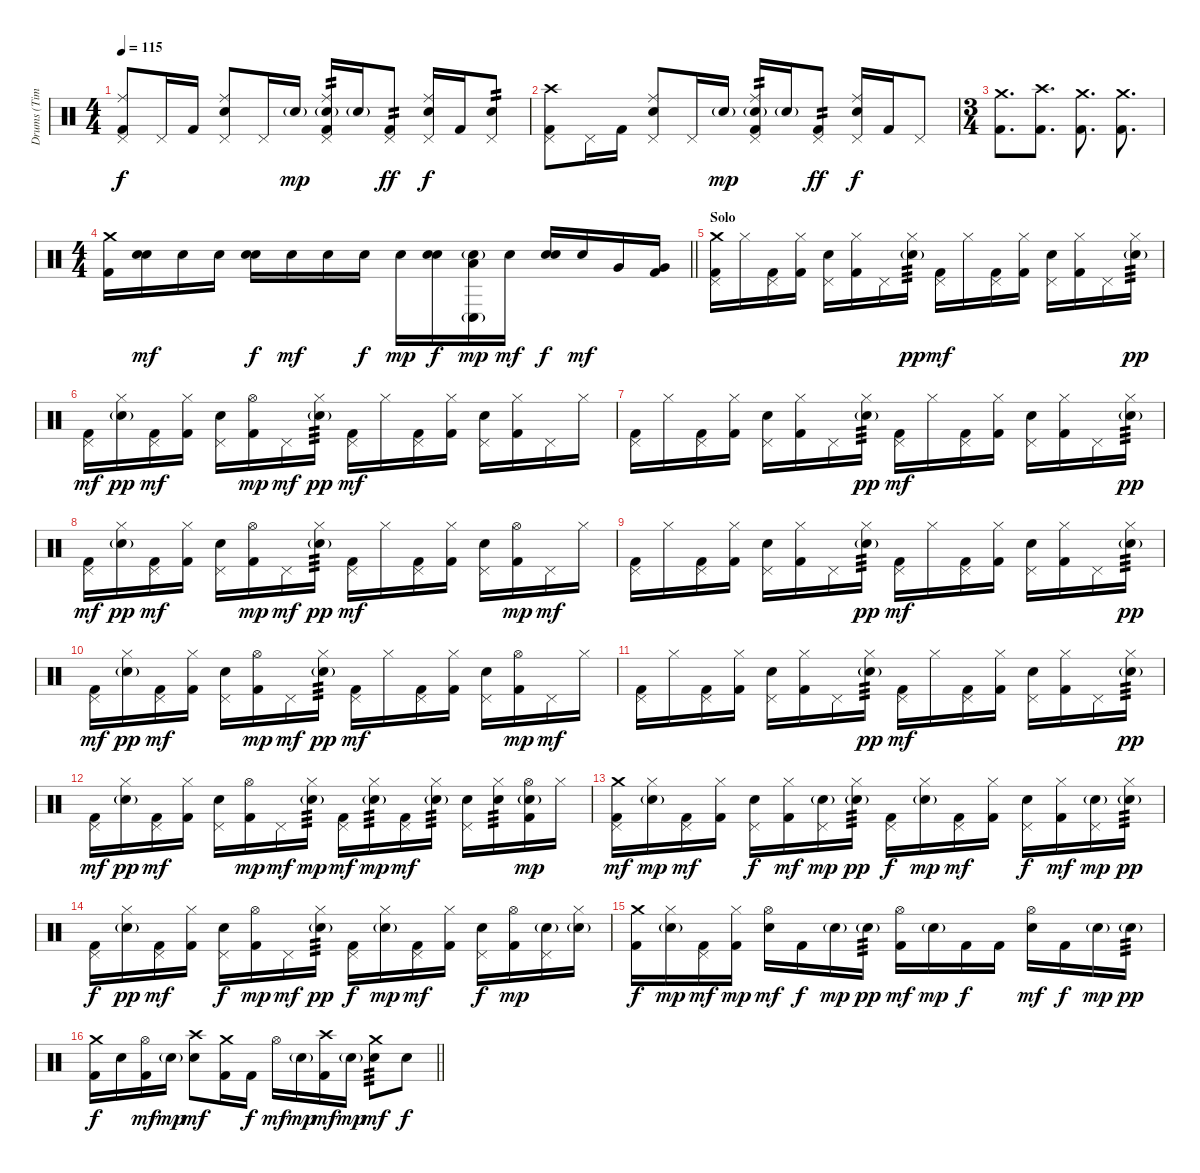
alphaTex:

\track ("Drums (Tim Alexander)" "Drums (Tim") {instrument percussion}
\staff {score}
\articulation defaults
\ts (4 4)
\tempo 115
\clef neutral
\ks c
("Pedal Hi-Hat (hit)" "Ride (middle)" "Kick (hit) 2").8{dy f} "Pedal Hi-Hat (hit)".16 "Kick (hit) 2".16 ("Pedal Hi-Hat (hit)" "Ride (middle)" "Electric Snare (hit)").8 "Pedal Hi-Hat (hit)".16 "Electric Snare (hit)"{g}.16{dy mp} ("Pedal Hi-Hat (hit)" "Ride (middle)" "Electric Snare (hit)"{g} "Kick (hit) 2").16{tp 2} "Electric Snare (hit)"{g}.16 ("Pedal Hi-Hat (hit)" "Kick (hit) 2").8{tp 2 dy ff} ("Pedal Hi-Hat (hit)" "Ride (middle)" "Electric Snare (hit)").16{dy f} "Kick (hit) 2".16 ("Pedal Hi-Hat (hit)" "Electric Snare (hit)").8{tp 2} |
("Pedal Hi-Hat (hit)" "Crash high (hit)" "Kick (hit) 2").8 "Pedal Hi-Hat (hit)".16 "Kick (hit) 2".16 ("Pedal Hi-Hat (hit)" "Ride (middle)" "Electric Snare (hit)").8 "Pedal Hi-Hat (hit)".16 "Electric Snare (hit)"{g}.16{dy mp} ("Pedal Hi-Hat (hit)" "Ride (middle)" "Electric Snare (hit)"{g} "Kick (hit) 2").16{tp 2} "Electric Snare (hit)"{g}.16 ("Pedal Hi-Hat (hit)" "Kick (hit) 2").8{tp 2 dy ff} ("Pedal Hi-Hat (hit)" "Ride (middle)" "Electric Snare (hit)").16{dy f} "Kick (hit) 2".16 "Pedal Hi-Hat (hit)".8 |
\ts (3 4)
("Crash medium (hit)" "Kick (hit) 2").8{d} ("Crash high (hit)" "Kick (hit) 2").8{d} ("Crash medium (hit)" "Kick (hit) 2").8{d} ("Crash medium (hit)" "Kick (hit) 2").8{d} |
\ts (4 4)
\barLineRight lightlight
("Crash medium (hit)" "Kick (hit) 2").16 ("Electric Snare (hit)" "Electric Snare (hit)").16{bd 30 dy mf} "Electric Snare (hit)".16 "Electric Snare (hit)".16 ("Electric Snare (hit)" "Electric Snare (hit)").16{bd 480 dy f} "Electric Snare (hit)".16{dy mf} "Electric Snare (hit)".16 "Electric Snare (hit)".16{dy f} "Electric Snare (hit)".16{dy mp} ("Electric Snare (hit)" "Electric Snare (hit)").16{bd 60 dy f} ("Conga low (hit)"{g} "Low Tom (hit)" "Electric Snare (hit)"{g}).16{dy mp} "Electric Snare (hit)".16{dy mf} ("Electric Snare (hit)" "Electric Snare (hit)").16{bd 30 dy f} "Electric Snare (hit)".16{dy mf} "Very Low Tom (hit)".16 ("Very Low Tom (hit)" "Kick (hit) 2").16 |
\section ("" "Solo")
("Pedal Hi-Hat (hit)" "Crash medium (hit)" "Kick (hit) 2").16{volume 11} "Hi-Hat (closed)".16 ("Pedal Hi-Hat (hit)" "Kick (hit) 2").16 ("Hi-Hat (closed)" "Kick (hit) 2").16 ("Pedal Hi-Hat (hit)" "Electric Snare (hit)").16 ("Hi-Hat (closed)" "Kick (hit) 2").16 "Pedal Hi-Hat (hit)".16 ("Hi-Hat (closed)" "Electric Snare (hit)"{g}).16{tp 3 dy pp} ("Pedal Hi-Hat (hit)" "Kick (hit) 2").16{dy mf} "Hi-Hat (closed)".16 ("Pedal Hi-Hat (hit)" "Kick (hit) 2").16 ("Hi-Hat (closed)" "Kick (hit) 2").16 ("Pedal Hi-Hat (hit)" "Electric Snare (hit)").16 ("Hi-Hat (closed)" "Kick (hit) 2").16 "Pedal Hi-Hat (hit)".16 ("Hi-Hat (closed)" "Electric Snare (hit)"{g}).16{tp 3 dy pp} |
("Pedal Hi-Hat (hit)" "Kick (hit) 2").16{dy mf} ("Hi-Hat (closed)" "Electric Snare (hit)"{g}).16{dy pp} ("Pedal Hi-Hat (hit)" "Kick (hit) 2").16{dy mf} ("Hi-Hat (closed)" "Kick (hit) 2").16 ("Pedal Hi-Hat (hit)" "Electric Snare (hit)").16 ("Hi-Hat (open)" "Kick (hit) 2").16{dy mp} "Pedal Hi-Hat (hit)".16{dy mf} ("Hi-Hat (closed)" "Electric Snare (hit)"{g}).16{tp 3 dy pp} ("Pedal Hi-Hat (hit)" "Kick (hit) 2").16{dy mf} "Hi-Hat (closed)".16 ("Pedal Hi-Hat (hit)" "Kick (hit) 2").16 ("Hi-Hat (closed)" "Kick (hit) 2").16 ("Pedal Hi-Hat (hit)" "Electric Snare (hit)").16 ("Hi-Hat (closed)" "Kick (hit) 2").16 "Pedal Hi-Hat (hit)".16 "Hi-Hat (closed)".16 |
("Pedal Hi-Hat (hit)" "Kick (hit) 2").16 "Hi-Hat (closed)".16 ("Pedal Hi-Hat (hit)" "Kick (hit) 2").16 ("Hi-Hat (closed)" "Kick (hit) 2").16 ("Pedal Hi-Hat (hit)" "Electric Snare (hit)").16 ("Hi-Hat (closed)" "Kick (hit) 2").16 "Pedal Hi-Hat (hit)".16 ("Hi-Hat (closed)" "Electric Snare (hit)"{g}).16{tp 3 dy pp} ("Pedal Hi-Hat (hit)" "Kick (hit) 2").16{dy mf} "Hi-Hat (closed)".16 ("Pedal Hi-Hat (hit)" "Kick (hit) 2").16 ("Hi-Hat (closed)" "Kick (hit) 2").16 ("Pedal Hi-Hat (hit)" "Electric Snare (hit)").16 ("Hi-Hat (closed)" "Kick (hit) 2").16 "Pedal Hi-Hat (hit)".16 ("Hi-Hat (closed)" "Electric Snare (hit)"{g}).16{tp 3 dy pp} |
("Pedal Hi-Hat (hit)" "Kick (hit) 2").16{dy mf} ("Hi-Hat (closed)" "Electric Snare (hit)"{g}).16{dy pp} ("Pedal Hi-Hat (hit)" "Kick (hit) 2").16{dy mf} ("Hi-Hat (closed)" "Kick (hit) 2").16 ("Pedal Hi-Hat (hit)" "Electric Snare (hit)").16 ("Hi-Hat (open)" "Kick (hit) 2").16{dy mp} "Pedal Hi-Hat (hit)".16{dy mf} ("Hi-Hat (closed)" "Electric Snare (hit)"{g}).16{tp 3 dy pp} ("Pedal Hi-Hat (hit)" "Kick (hit) 2").16{dy mf} "Hi-Hat (closed)".16 ("Pedal Hi-Hat (hit)" "Kick (hit) 2").16 ("Hi-Hat (closed)" "Kick (hit) 2").16 ("Pedal Hi-Hat (hit)" "Electric Snare (hit)").16 ("Hi-Hat (open)" "Kick (hit) 2").16{dy mp} "Pedal Hi-Hat (hit)".16{dy mf} "Hi-Hat (closed)".16 |
("Pedal Hi-Hat (hit)" "Kick (hit) 2").16 "Hi-Hat (closed)".16 ("Pedal Hi-Hat (hit)" "Kick (hit) 2").16 ("Hi-Hat (closed)" "Kick (hit) 2").16 ("Pedal Hi-Hat (hit)" "Electric Snare (hit)").16 ("Hi-Hat (closed)" "Kick (hit) 2").16 "Pedal Hi-Hat (hit)".16 ("Hi-Hat (closed)" "Electric Snare (hit)"{g}).16{tp 3 dy pp} ("Pedal Hi-Hat (hit)" "Kick (hit) 2").16{dy mf} "Hi-Hat (closed)".16 ("Pedal Hi-Hat (hit)" "Kick (hit) 2").16 ("Hi-Hat (closed)" "Kick (hit) 2").16 ("Pedal Hi-Hat (hit)" "Electric Snare (hit)").16 ("Hi-Hat (closed)" "Kick (hit) 2").16 "Pedal Hi-Hat (hit)".16 ("Hi-Hat (closed)" "Electric Snare (hit)"{g}).16{tp 3 dy pp} |
("Pedal Hi-Hat (hit)" "Kick (hit) 2").16{dy mf} ("Hi-Hat (closed)" "Electric Snare (hit)"{g}).16{dy pp} ("Pedal Hi-Hat (hit)" "Kick (hit) 2").16{dy mf} ("Hi-Hat (closed)" "Kick (hit) 2").16 ("Pedal Hi-Hat (hit)" "Electric Snare (hit)").16 ("Hi-Hat (open)" "Kick (hit) 2").16{dy mp} "Pedal Hi-Hat (hit)".16{dy mf} ("Hi-Hat (closed)" "Electric Snare (hit)"{g}).16{tp 3 dy pp} ("Pedal Hi-Hat (hit)" "Kick (hit) 2").16{dy mf} "Hi-Hat (closed)".16 ("Pedal Hi-Hat (hit)" "Kick (hit) 2").16 ("Hi-Hat (closed)" "Kick (hit) 2").16 ("Pedal Hi-Hat (hit)" "Electric Snare (hit)").16 ("Hi-Hat (open)" "Kick (hit) 2").16{dy mp} "Pedal Hi-Hat (hit)".16{dy mf} "Hi-Hat (closed)".16 |
("Pedal Hi-Hat (hit)" "Kick (hit) 2").16 "Hi-Hat (closed)".16 ("Pedal Hi-Hat (hit)" "Kick (hit) 2").16 ("Hi-Hat (closed)" "Kick (hit) 2").16 ("Pedal Hi-Hat (hit)" "Electric Snare (hit)").16 ("Hi-Hat (closed)" "Kick (hit) 2").16 "Pedal Hi-Hat (hit)".16 ("Hi-Hat (closed)" "Electric Snare (hit)"{g}).16{tp 3 dy pp} ("Pedal Hi-Hat (hit)" "Kick (hit) 2").16{dy mf} "Hi-Hat (closed)".16 ("Pedal Hi-Hat (hit)" "Kick (hit) 2").16 ("Hi-Hat (closed)" "Kick (hit) 2").16 ("Pedal Hi-Hat (hit)" "Electric Snare (hit)").16 ("Hi-Hat (closed)" "Kick (hit) 2").16 "Pedal Hi-Hat (hit)".16 ("Hi-Hat (closed)" "Electric Snare (hit)"{g}).16{tp 3 dy pp} |
("Pedal Hi-Hat (hit)" "Kick (hit) 2").16{dy mf} ("Hi-Hat (closed)" "Electric Snare (hit)"{g}).16{dy pp} ("Pedal Hi-Hat (hit)" "Kick (hit) 2").16{dy mf} ("Hi-Hat (closed)" "Kick (hit) 2").16 ("Pedal Hi-Hat (hit)" "Electric Snare (hit)").16 ("Hi-Hat (open)" "Kick (hit) 2").16{dy mp} "Pedal Hi-Hat (hit)".16{dy mf} ("Hi-Hat (closed)" "Electric Snare (hit)"{g}).16{tp 3 dy mp} ("Pedal Hi-Hat (hit)" "Kick (hit) 2").16{dy mf} ("Hi-Hat (closed)" "Electric Snare (hit)"{g}).16{tp 3 dy mp} ("Pedal Hi-Hat (hit)" "Kick (hit) 2").16{dy mf} ("Hi-Hat (closed)" "Electric Snare (hit)"{g}).16{tp 3} ("Pedal Hi-Hat (hit)" "Electric Snare (hit)").16 ("Hi-Hat (closed)" "Electric Snare (hit)").16{tp 3} ("Hi-Hat (open)" "Electric Snare (hit)"{g} "Kick (hit) 2").16{dy mp} "Hi-Hat (closed)".16 |
("Pedal Hi-Hat (hit)" "Crash medium (hit)" "Kick (hit) 2").16{dy mf volume 12} ("Hi-Hat (closed)" "Electric Snare (hit)"{g}).16{dy mp} ("Pedal Hi-Hat (hit)" "Kick (hit) 2").16{dy mf} ("Hi-Hat (closed)" "Kick (hit) 2").16 ("Pedal Hi-Hat (hit)" "Electric Snare (hit)").16{dy f} ("Hi-Hat (closed)" "Kick (hit) 2").16{dy mf} ("Pedal Hi-Hat (hit)" "Electric Snare (hit)"{g}).16{dy mp} ("Hi-Hat (closed)" "Electric Snare (hit)"{g}).16{tp 3 dy pp} ("Pedal Hi-Hat (hit)" "Kick (hit) 2").16{dy f} ("Hi-Hat (closed)" "Electric Snare (hit)"{g}).16{dy mp} ("Pedal Hi-Hat (hit)" "Kick (hit) 2").16{dy mf} ("Hi-Hat (closed)" "Kick (hit) 2").16 ("Pedal Hi-Hat (hit)" "Electric Snare (hit)").16{dy f} ("Hi-Hat (closed)" "Kick (hit) 2").16{dy mf} ("Pedal Hi-Hat (hit)" "Electric Snare (hit)"{g}).16{dy mp} ("Hi-Hat (closed)" "Electric Snare (hit)"{g}).16{tp 3 dy pp} |
("Pedal Hi-Hat (hit)" "Kick (hit) 2").16{dy f} ("Hi-Hat (closed)" "Electric Snare (hit)"{g}).16{dy pp} ("Pedal Hi-Hat (hit)" "Kick (hit) 2").16{dy mf} ("Hi-Hat (closed)" "Kick (hit) 2").16 ("Pedal Hi-Hat (hit)" "Electric Snare (hit)").16{dy f} ("Hi-Hat (open)" "Kick (hit) 2").16{dy mp} "Pedal Hi-Hat (hit)".16{dy mf} ("Hi-Hat (closed)" "Electric Snare (hit)"{g}).16{tp 3 dy pp} ("Pedal Hi-Hat (hit)" "Kick (hit) 2").16{dy f} ("Hi-Hat (closed)" "Electric Snare (hit)"{g}).16{dy mp} ("Pedal Hi-Hat (hit)" "Kick (hit) 2").16{dy mf} ("Hi-Hat (closed)" "Kick (hit) 2").16 ("Pedal Hi-Hat (hit)" "Electric Snare (hit)").16{dy f} ("Hi-Hat (open)" "Kick (hit) 2").16{dy mp} ("Pedal Hi-Hat (hit)" "Electric Snare (hit)"{g}).16 ("Hi-Hat (closed)" "Electric Snare (hit)"{g}).16 |
("Crash medium (hit)" "Kick (hit) 2").16{dy f} ("Hi-Hat (closed)" "Electric Snare (hit)"{g}).16{dy mp} ("Pedal Hi-Hat (hit)" "Kick (hit) 2").16{dy mf} ("Hi-Hat (closed)" "Kick (hit) 2").16{dy mp} ("Hi-Hat (open)" "Electric Snare (hit)").16{dy mf} "Kick (hit) 2".16{dy f} "Electric Snare (hit)"{g}.16{dy mp} "Electric Snare (hit)"{g}.16{tp 3 dy pp} ("Hi-Hat (open)" "Kick (hit) 2").16{dy mf} "Electric Snare (hit)"{g}.16{dy mp} "Kick (hit) 2".16{dy f} "Kick (hit) 2".16 ("Hi-Hat (open)" "Electric Snare (hit)").16{dy mf} "Kick (hit) 2".16{dy f} "Electric Snare (hit)"{g}.16{dy mp} "Electric Snare (hit)"{g}.16{tp 3 dy pp} |
\barLineRight lightlight
("Crash medium (hit)" "Kick (hit) 2").16{dy f volume 13} "Electric Snare (hit)".16 ("Hi-Hat (open)" "Kick (hit) 2").16{dy mf} "Electric Snare (hit)"{g}.16{dy mp} ("Crash high (hit)" "Electric Snare (hit)").8{dy mf} ("Crash medium (hit)" "Kick (hit) 2").16 "Kick (hit) 2".16{dy f} "Hi-Hat (open)".16{dy mf} "Electric Snare (hit)"{g}.16{dy mp} ("Crash high (hit)" "Kick (hit) 2").16{dy mf} "Electric Snare (hit)"{g}.16{dy mp} ("Crash medium (hit)" "Electric Snare (hit)").8{tp 3 dy mf} "Electric Snare (hit)".8{dy f}
